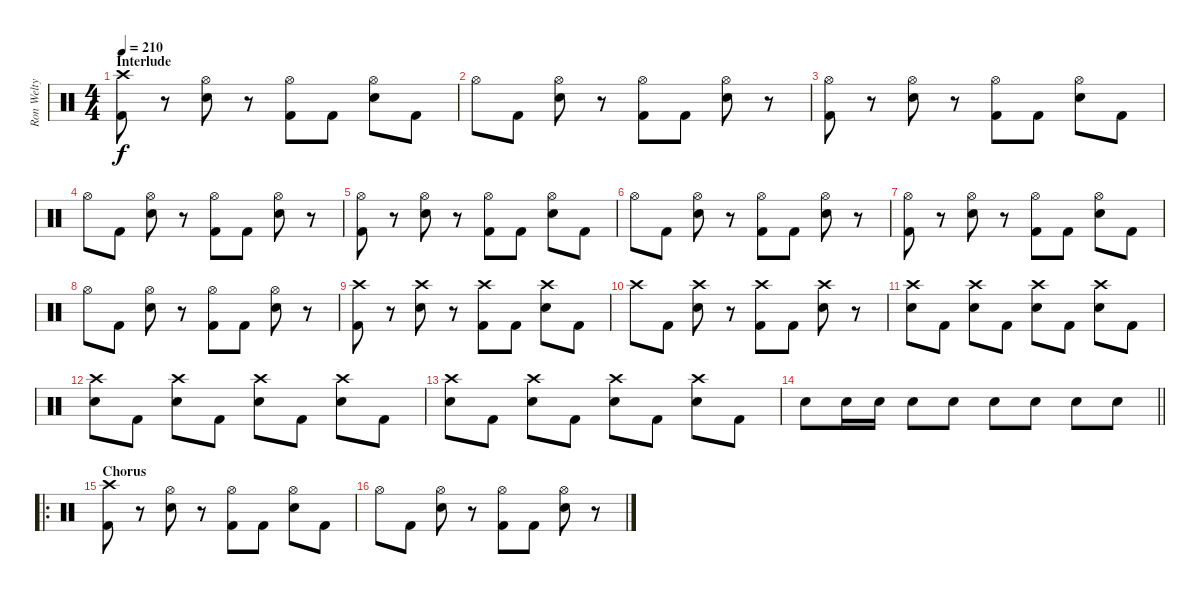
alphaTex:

\track ("Ron Welty" "Ron Welty") {instrument percussion}
\staff {score}
\articulation defaults
\ts (4 4)
\section ("" "Interlude")
\tempo 210
\clef neutral
\ks c
("Crash high (hit)" "Kick (hit) 2").8{dy f} r.8 ("Hi-Hat (open)" "Electric Snare (hit)").8 r.8 ("Hi-Hat (open)" "Kick (hit) 2").8 "Kick (hit) 2".8 ("Hi-Hat (open)" "Electric Snare (hit)").8 "Kick (hit) 2".8 |
"Hi-Hat (open)".8 "Kick (hit) 2".8 ("Hi-Hat (open)" "Electric Snare (hit)").8 r.8 ("Hi-Hat (open)" "Kick (hit) 2").8 "Kick (hit) 2".8 ("Hi-Hat (open)" "Electric Snare (hit)").8 r.8 |
("Hi-Hat (open)" "Kick (hit) 2").8 r.8 ("Hi-Hat (open)" "Electric Snare (hit)").8 r.8 ("Hi-Hat (open)" "Kick (hit) 2").8 "Kick (hit) 2".8 ("Hi-Hat (open)" "Electric Snare (hit)").8 "Kick (hit) 2".8 |
"Hi-Hat (open)".8 "Kick (hit) 2".8 ("Hi-Hat (open)" "Electric Snare (hit)").8 r.8 ("Hi-Hat (open)" "Kick (hit) 2").8 "Kick (hit) 2".8 ("Hi-Hat (open)" "Electric Snare (hit)").8 r.8 |
("Hi-Hat (open)" "Kick (hit) 2").8 r.8 ("Hi-Hat (open)" "Electric Snare (hit)").8 r.8 ("Hi-Hat (open)" "Kick (hit) 2").8 "Kick (hit) 2".8 ("Hi-Hat (open)" "Electric Snare (hit)").8 "Kick (hit) 2".8 |
"Hi-Hat (open)".8 "Kick (hit) 2".8 ("Hi-Hat (open)" "Electric Snare (hit)").8 r.8 ("Hi-Hat (open)" "Kick (hit) 2").8 "Kick (hit) 2".8 ("Hi-Hat (open)" "Electric Snare (hit)").8 r.8 |
("Hi-Hat (open)" "Kick (hit) 2").8 r.8 ("Hi-Hat (open)" "Electric Snare (hit)").8 r.8 ("Hi-Hat (open)" "Kick (hit) 2").8 "Kick (hit) 2".8 ("Hi-Hat (open)" "Electric Snare (hit)").8 "Kick (hit) 2".8 |
"Hi-Hat (open)".8 "Kick (hit) 2".8 ("Hi-Hat (open)" "Electric Snare (hit)").8 r.8 ("Hi-Hat (open)" "Kick (hit) 2").8 "Kick (hit) 2".8 ("Hi-Hat (open)" "Electric Snare (hit)").8 r.8 |
("Crash high (hit)" "Kick (hit) 2").8 r.8 ("Crash high (hit)" "Electric Snare (hit)").8 r.8 ("Crash high (hit)" "Kick (hit) 2").8 "Kick (hit) 2".8 ("Crash high (hit)" "Electric Snare (hit)").8 "Kick (hit) 2".8 |
"Crash high (hit)".8 "Kick (hit) 2".8 ("Crash high (hit)" "Electric Snare (hit)").8 r.8 ("Crash high (hit)" "Kick (hit) 2").8 "Kick (hit) 2".8 ("Crash high (hit)" "Electric Snare (hit)").8 r.8 |
("Crash high (hit)" "Electric Snare (hit)").8 "Kick (hit) 2".8 ("Crash high (hit)" "Electric Snare (hit)").8 "Kick (hit) 2".8 ("Crash high (hit)" "Electric Snare (hit)").8 "Kick (hit) 2".8 ("Crash high (hit)" "Electric Snare (hit)").8 "Kick (hit) 2".8 |
("Crash high (hit)" "Electric Snare (hit)").8 "Kick (hit) 2".8 ("Crash high (hit)" "Electric Snare (hit)").8 "Kick (hit) 2".8 ("Crash high (hit)" "Electric Snare (hit)").8 "Kick (hit) 2".8 ("Crash high (hit)" "Electric Snare (hit)").8 "Kick (hit) 2".8 |
("Crash high (hit)" "Electric Snare (hit)").8 "Kick (hit) 2".8 ("Crash high (hit)" "Electric Snare (hit)").8 "Kick (hit) 2".8 ("Crash high (hit)" "Electric Snare (hit)").8 "Kick (hit) 2".8 ("Crash high (hit)" "Electric Snare (hit)").8 "Kick (hit) 2".8 |
\barLineRight lightlight "Electric Snare (hit)".8 "Electric Snare (hit)".16 "Electric Snare (hit)".16 "Electric Snare (hit)".8 "Electric Snare (hit)".8 "Electric Snare (hit)".8 "Electric Snare (hit)".8 "Electric Snare (hit)".8 "Electric Snare (hit)".8
|
\ro
\section ("" "Chorus")
("Crash high (hit)" "Kick (hit) 2").8 r.8 ("Hi-Hat (open)" "Electric Snare (hit)").8 r.8 ("Hi-Hat (open)" "Kick (hit) 2").8 "Kick (hit) 2".8 ("Hi-Hat (open)" "Electric Snare (hit)").8 "Kick (hit) 2".8 |
"Hi-Hat (open)".8 "Kick (hit) 2".8 ("Hi-Hat (open)" "Electric Snare (hit)").8 r.8 ("Hi-Hat (open)" "Kick (hit) 2").8 "Kick (hit) 2".8 ("Hi-Hat (open)" "Electric Snare (hit)").8 r.8
